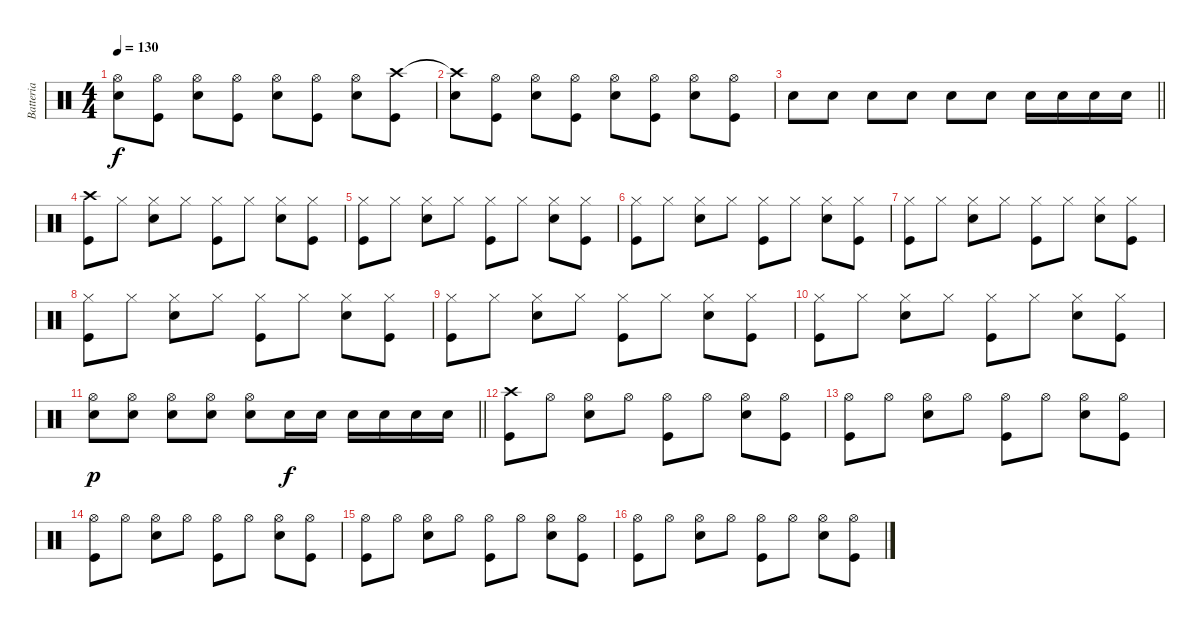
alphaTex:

\track ("Batteria" "Batteria") {instrument percussion}
\staff {score}
\articulation defaults
\ts (4 4)
\tempo 130
\clef neutral
\ks c
("Snare (hit) 2" "Hi-Hat (open)").8{dy f} ("Kick (hit)" "Hi-Hat (open)").8 ("Snare (hit) 2" "Hi-Hat (open)").8 ("Kick (hit)" "Hi-Hat (open)").8 ("Snare (hit) 2" "Hi-Hat (open)").8 ("Kick (hit)" "Hi-Hat (open)").8 ("Snare (hit) 2" "Hi-Hat (open)").8 ("Kick (hit)" "Crash high (hit)").8 |
("Snare (hit) 2" "Crash high (hit)"{t}).8 ("Kick (hit)" "Hi-Hat (open)").8 ("Snare (hit) 2" "Hi-Hat (open)").8 ("Kick (hit)" "Hi-Hat (open)").8 ("Snare (hit) 2" "Hi-Hat (open)").8 ("Kick (hit)" "Hi-Hat (open)").8 ("Snare (hit) 2" "Hi-Hat (open)").8 ("Kick (hit)" "Hi-Hat (open)").8 |
\barLineRight lightlight "Snare (hit) 2".8 "Snare (hit) 2".8 "Snare (hit) 2".8 "Snare (hit) 2".8 "Snare (hit) 2".8 "Snare (hit) 2".8 "Snare (hit) 2".16 "Snare (hit) 2".16 "Snare (hit) 2".16 "Snare (hit) 2".16
|
("Kick (hit)" "Crash high (hit)").8 "Hi-Hat (closed)".8 ("Snare (hit) 2" "Hi-Hat (closed)").8 "Hi-Hat (closed)".8 ("Kick (hit)" "Hi-Hat (closed)").8 "Hi-Hat (closed)".8 ("Snare (hit) 2" "Hi-Hat (closed)").8 ("Kick (hit)" "Hi-Hat (closed)").8 |
("Kick (hit)" "Hi-Hat (closed)").8 "Hi-Hat (closed)".8 ("Snare (hit) 2" "Hi-Hat (closed)").8 "Hi-Hat (closed)".8 ("Kick (hit)" "Hi-Hat (closed)").8 "Hi-Hat (closed)".8 ("Snare (hit) 2" "Hi-Hat (closed)").8 ("Kick (hit)" "Hi-Hat (closed)").8 |
("Kick (hit)" "Hi-Hat (closed)").8 "Hi-Hat (closed)".8 ("Snare (hit) 2" "Hi-Hat (closed)").8 "Hi-Hat (closed)".8 ("Kick (hit)" "Hi-Hat (closed)").8 "Hi-Hat (closed)".8 ("Snare (hit) 2" "Hi-Hat (closed)").8 ("Kick (hit)" "Hi-Hat (closed)").8 |
("Kick (hit)" "Hi-Hat (closed)").8 "Hi-Hat (closed)".8 ("Snare (hit) 2" "Hi-Hat (closed)").8 "Hi-Hat (closed)".8 ("Kick (hit)" "Hi-Hat (closed)").8 "Hi-Hat (closed)".8 ("Snare (hit) 2" "Hi-Hat (closed)").8 ("Kick (hit)" "Hi-Hat (closed)").8 |
("Kick (hit)" "Hi-Hat (closed)").8 "Hi-Hat (closed)".8 ("Snare (hit) 2" "Hi-Hat (closed)").8 "Hi-Hat (closed)".8 ("Kick (hit)" "Hi-Hat (closed)").8 "Hi-Hat (closed)".8 ("Snare (hit) 2" "Hi-Hat (closed)").8 ("Kick (hit)" "Hi-Hat (closed)").8 |
("Kick (hit)" "Hi-Hat (closed)").8 "Hi-Hat (closed)".8 ("Snare (hit) 2" "Hi-Hat (closed)").8 "Hi-Hat (closed)".8 ("Kick (hit)" "Hi-Hat (closed)").8 "Hi-Hat (closed)".8 ("Snare (hit) 2" "Hi-Hat (closed)").8 ("Kick (hit)" "Hi-Hat (closed)").8 |
("Kick (hit)" "Hi-Hat (closed)").8 "Hi-Hat (closed)".8 ("Snare (hit) 2" "Hi-Hat (closed)").8 "Hi-Hat (closed)".8 ("Kick (hit)" "Hi-Hat (closed)").8 "Hi-Hat (closed)".8 ("Snare (hit) 2" "Hi-Hat (closed)").8 ("Kick (hit)" "Hi-Hat (closed)").8 |
\barLineRight lightlight
("Snare (hit) 2" "Hi-Hat (open)").8{dy p} ("Snare (hit) 2" "Hi-Hat (open)").8 ("Snare (hit) 2" "Hi-Hat (open)").8 ("Snare (hit) 2" "Hi-Hat (open)").8 ("Snare (hit) 2" "Hi-Hat (open)").8 "Snare (hit) 2".16{dy f} "Snare (hit) 2".16 "Snare (hit) 2".16 "Snare (hit) 2".16 "Snare (hit) 2".16 "Snare (hit) 2".16 |
("Kick (hit)" "Crash high (hit)").8 "Hi-Hat (open)".8 ("Snare (hit) 2" "Hi-Hat (open)").8 "Hi-Hat (open)".8 ("Kick (hit)" "Hi-Hat (open)").8 "Hi-Hat (open)".8 ("Snare (hit) 2" "Hi-Hat (open)").8 ("Kick (hit)" "Hi-Hat (open)").8 |
("Kick (hit)" "Hi-Hat (open)").8 "Hi-Hat (open)".8 ("Snare (hit) 2" "Hi-Hat (open)").8 "Hi-Hat (open)".8 ("Kick (hit)" "Hi-Hat (open)").8 "Hi-Hat (open)".8 ("Snare (hit) 2" "Hi-Hat (open)").8 ("Kick (hit)" "Hi-Hat (open)").8 |
("Kick (hit)" "Hi-Hat (open)").8 "Hi-Hat (open)".8 ("Snare (hit) 2" "Hi-Hat (open)").8 "Hi-Hat (open)".8 ("Kick (hit)" "Hi-Hat (open)").8 "Hi-Hat (open)".8 ("Snare (hit) 2" "Hi-Hat (open)").8 ("Kick (hit)" "Hi-Hat (open)").8 |
("Kick (hit)" "Hi-Hat (open)").8 "Hi-Hat (open)".8 ("Snare (hit) 2" "Hi-Hat (open)").8 "Hi-Hat (open)".8 ("Kick (hit)" "Hi-Hat (open)").8 "Hi-Hat (open)".8 ("Snare (hit) 2" "Hi-Hat (open)").8 ("Kick (hit)" "Hi-Hat (open)").8 |
("Kick (hit)" "Hi-Hat (open)").8 "Hi-Hat (open)".8 ("Snare (hit) 2" "Hi-Hat (open)").8 "Hi-Hat (open)".8 ("Kick (hit)" "Hi-Hat (open)").8 "Hi-Hat (open)".8 ("Snare (hit) 2" "Hi-Hat (open)").8 ("Kick (hit)" "Hi-Hat (open)").8
